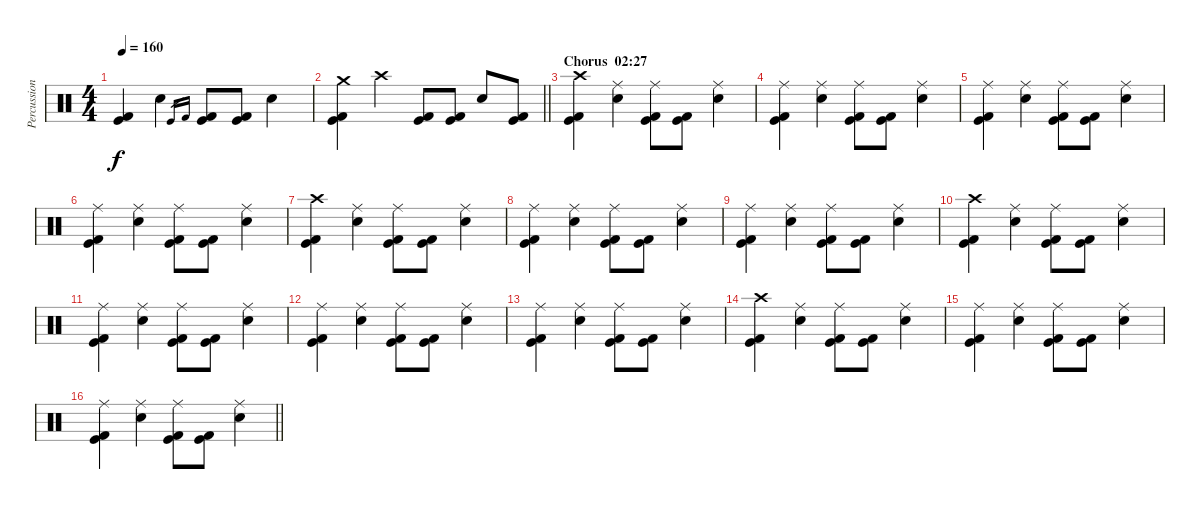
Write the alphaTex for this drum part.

\track ("Percussion" "Percussion") {instrument percussion}
\staff {score}
\articulation defaults
\ts (4 4)
\tempo 160
\clef neutral
\ks c
("Kick (hit)" "Kick (hit) 2").4{dy f} "Electric Snare (hit)".4 "Kick (hit)".16{gr} "Kick (hit) 2".16{gr} ("Kick (hit)" "Kick (hit) 2").8 ("Kick (hit)" "Kick (hit) 2").8 "Electric Snare (hit)".4 |
\barLineRight lightlight
("Crash medium (hit)" "Kick (hit)" "Kick (hit) 2").4 "Crash high (hit)".4 ("Kick (hit)" "Kick (hit) 2").8 ("Kick (hit)" "Kick (hit) 2").8 "Electric Snare (hit)".8 ("Kick (hit)" "Kick (hit) 2").8 |
\section ("" "Chorus  02:27")
("Crash high (hit)" "Kick (hit)" "Kick (hit) 2").4 ("Ride (middle)" "Electric Snare (hit)").4 ("Ride (middle)" "Kick (hit)" "Kick (hit) 2").8 ("Kick (hit)" "Kick (hit) 2").8 ("Ride (middle)" "Electric Snare (hit)").4 |
("Ride (middle)" "Kick (hit)" "Kick (hit) 2").4 ("Ride (middle)" "Electric Snare (hit)").4 ("Ride (middle)" "Kick (hit)" "Kick (hit) 2").8 ("Kick (hit)" "Kick (hit) 2").8 ("Ride (middle)" "Electric Snare (hit)").4 |
("Ride (middle)" "Kick (hit)" "Kick (hit) 2").4 ("Ride (middle)" "Electric Snare (hit)").4 ("Ride (middle)" "Kick (hit)" "Kick (hit) 2").8 ("Kick (hit)" "Kick (hit) 2").8 ("Ride (middle)" "Electric Snare (hit)").4 |
("Ride (middle)" "Kick (hit)" "Kick (hit) 2").4 ("Ride (middle)" "Electric Snare (hit)").4 ("Ride (middle)" "Kick (hit)" "Kick (hit) 2").8 ("Kick (hit)" "Kick (hit) 2").8 ("Ride (middle)" "Electric Snare (hit)").4 |
("Crash high (hit)" "Kick (hit)" "Kick (hit) 2").4 ("Ride (middle)" "Electric Snare (hit)").4 ("Ride (middle)" "Kick (hit)" "Kick (hit) 2").8 ("Kick (hit)" "Kick (hit) 2").8 ("Ride (middle)" "Electric Snare (hit)").4 |
("Ride (middle)" "Kick (hit)" "Kick (hit) 2").4 ("Ride (middle)" "Electric Snare (hit)").4 ("Ride (middle)" "Kick (hit)" "Kick (hit) 2").8 ("Kick (hit)" "Kick (hit) 2").8 ("Ride (middle)" "Electric Snare (hit)").4 |
("Ride (middle)" "Kick (hit)" "Kick (hit) 2").4 ("Ride (middle)" "Electric Snare (hit)").4 ("Ride (middle)" "Kick (hit)" "Kick (hit) 2").8 ("Kick (hit)" "Kick (hit) 2").8 ("Ride (middle)" "Electric Snare (hit)").4 |
("Crash high (hit)" "Kick (hit)" "Kick (hit) 2").4 ("Ride (middle)" "Electric Snare (hit)").4 ("Ride (middle)" "Kick (hit)" "Kick (hit) 2").8 ("Kick (hit)" "Kick (hit) 2").8 ("Ride (middle)" "Electric Snare (hit)").4 |
("Ride (middle)" "Kick (hit)" "Kick (hit) 2").4 ("Ride (middle)" "Electric Snare (hit)").4 ("Ride (middle)" "Kick (hit)" "Kick (hit) 2").8 ("Kick (hit)" "Kick (hit) 2").8 ("Ride (middle)" "Electric Snare (hit)").4 |
("Ride (middle)" "Kick (hit)" "Kick (hit) 2").4 ("Ride (middle)" "Electric Snare (hit)").4 ("Ride (middle)" "Kick (hit)" "Kick (hit) 2").8 ("Kick (hit)" "Kick (hit) 2").8 ("Ride (middle)" "Electric Snare (hit)").4 |
("Ride (middle)" "Kick (hit)" "Kick (hit) 2").4 ("Ride (middle)" "Electric Snare (hit)").4 ("Ride (middle)" "Kick (hit)" "Kick (hit) 2").8 ("Kick (hit)" "Kick (hit) 2").8 ("Ride (middle)" "Electric Snare (hit)").4 |
("Crash high (hit)" "Kick (hit)" "Kick (hit) 2").4 ("Ride (middle)" "Electric Snare (hit)").4 ("Ride (middle)" "Kick (hit)" "Kick (hit) 2").8 ("Kick (hit)" "Kick (hit) 2").8 ("Ride (middle)" "Electric Snare (hit)").4 |
("Ride (middle)" "Kick (hit)" "Kick (hit) 2").4 ("Ride (middle)" "Electric Snare (hit)").4 ("Ride (middle)" "Kick (hit)" "Kick (hit) 2").8 ("Kick (hit)" "Kick (hit) 2").8 ("Ride (middle)" "Electric Snare (hit)").4 |
\barLineRight lightlight
("Ride (middle)" "Kick (hit)" "Kick (hit) 2").4 ("Ride (middle)" "Electric Snare (hit)").4 ("Ride (middle)" "Kick (hit)" "Kick (hit) 2").8 ("Kick (hit)" "Kick (hit) 2").8 ("Ride (middle)" "Electric Snare (hit)").4
